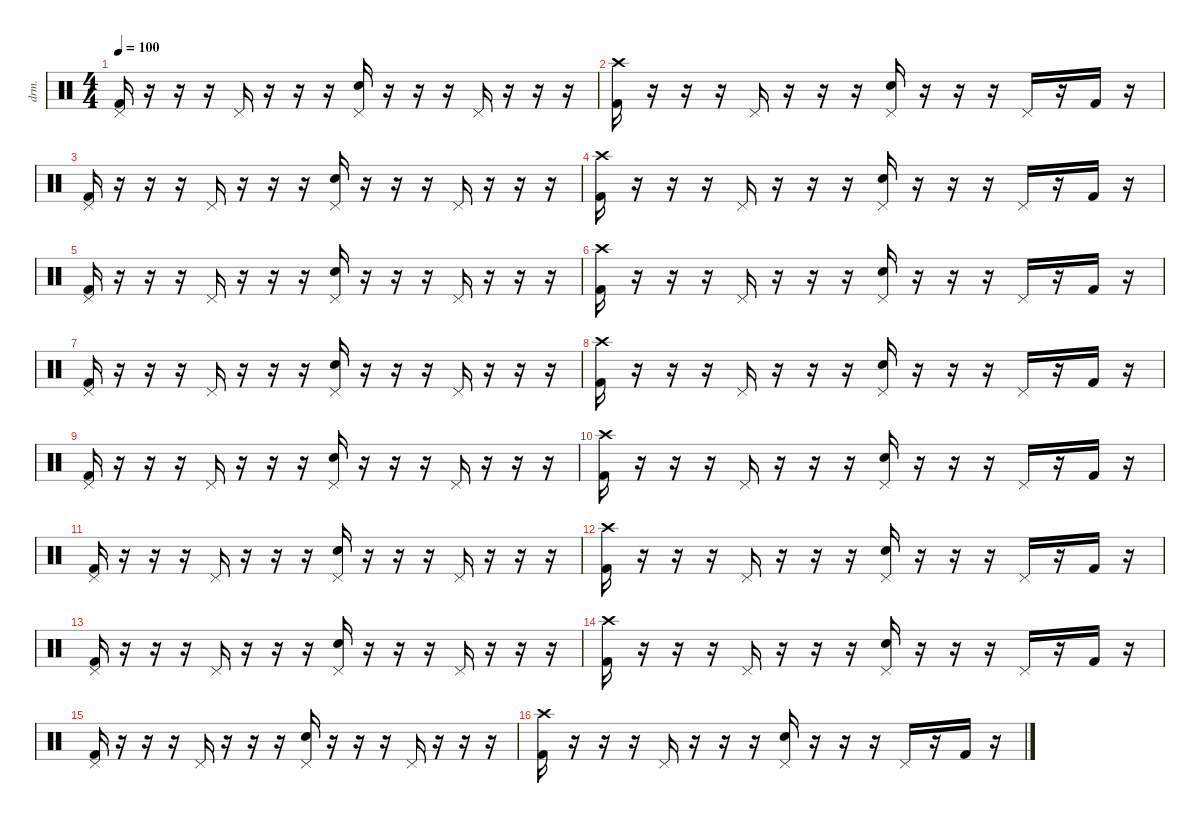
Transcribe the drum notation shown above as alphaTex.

\defaultSystemsLayout 4
\hideDynamics
\bracketExtendMode nobrackets
\otherSystemsTrackNameOrientation horizontal
\track ("Drums" "drm.") {instrument percussion}
\staff {score}
\articulation defaults
\ts (4 4)
\tempo 100
\clef neutral
\ks c
("Kick (hit) 2" "Pedal Hi-Hat (hit)").16{dy ff beam Up} r.16{beam Up} r.16{beam Up} r.16{beam Up} "Pedal Hi-Hat (hit)".16{beam Up} r.16{beam Up} r.16{beam Up} r.16{beam Up} ("Snare (hit) 2" "Pedal Hi-Hat (hit)").16{beam Up} r.16{beam Up} r.16{beam Up} r.16{beam Up} "Pedal Hi-Hat (hit)".16{beam Up} r.16{beam Up} r.16{beam Up} r.16{beam Up} |
("Kick (hit) 2" "Crash high (hit)").16{beam Down} r.16{beam Down} r.16{beam Down} r.16{beam Down} "Pedal Hi-Hat (hit)".16{beam Up} r.16{beam Up} r.16{beam Up} r.16{beam Up} ("Snare (hit) 2" "Pedal Hi-Hat (hit)").16{beam Up} r.16{beam Up} r.16{beam Up} r.16{beam Up} "Pedal Hi-Hat (hit)".16{beam Up} r.16{beam Up} "Kick (hit) 2".16{dy f beam Up} r.16{beam Up} |
("Kick (hit) 2" "Pedal Hi-Hat (hit)").16{dy ff beam Up} r.16{beam Up} r.16{beam Up} r.16{beam Up} "Pedal Hi-Hat (hit)".16{beam Up} r.16{beam Up} r.16{beam Up} r.16{beam Up} ("Snare (hit) 2" "Pedal Hi-Hat (hit)").16{beam Up} r.16{beam Up} r.16{beam Up} r.16{beam Up} "Pedal Hi-Hat (hit)".16{beam Up} r.16{beam Up} r.16{beam Up} r.16{beam Up} |
("Kick (hit) 2" "Crash high (hit)").16{beam Down} r.16{beam Down} r.16{beam Down} r.16{beam Down} "Pedal Hi-Hat (hit)".16{beam Up} r.16{beam Up} r.16{beam Up} r.16{beam Up} ("Snare (hit) 2" "Pedal Hi-Hat (hit)").16{beam Up} r.16{beam Up} r.16{beam Up} r.16{beam Up} "Pedal Hi-Hat (hit)".16{beam Up} r.16{beam Up} "Kick (hit) 2".16{dy f beam Up} r.16{beam Up} |
("Kick (hit) 2" "Pedal Hi-Hat (hit)").16{dy ff beam Up} r.16{beam Up} r.16{beam Up} r.16{beam Up} "Pedal Hi-Hat (hit)".16{beam Up} r.16{beam Up} r.16{beam Up} r.16{beam Up} ("Snare (hit) 2" "Pedal Hi-Hat (hit)").16{beam Up} r.16{beam Up} r.16{beam Up} r.16{beam Up} "Pedal Hi-Hat (hit)".16{beam Up} r.16{beam Up} r.16{beam Up} r.16{beam Up} |
("Kick (hit) 2" "Crash high (hit)").16{beam Down} r.16{beam Down} r.16{beam Down} r.16{beam Down} "Pedal Hi-Hat (hit)".16{beam Up} r.16{beam Up} r.16{beam Up} r.16{beam Up} ("Snare (hit) 2" "Pedal Hi-Hat (hit)").16{beam Up} r.16{beam Up} r.16{beam Up} r.16{beam Up} "Pedal Hi-Hat (hit)".16{beam Up} r.16{beam Up} "Kick (hit) 2".16{dy f beam Up} r.16{beam Up} |
("Kick (hit) 2" "Pedal Hi-Hat (hit)").16{dy ff beam Up} r.16{beam Up} r.16{beam Up} r.16{beam Up} "Pedal Hi-Hat (hit)".16{beam Up} r.16{beam Up} r.16{beam Up} r.16{beam Up} ("Snare (hit) 2" "Pedal Hi-Hat (hit)").16{beam Up} r.16{beam Up} r.16{beam Up} r.16{beam Up} "Pedal Hi-Hat (hit)".16{beam Up} r.16{beam Up} r.16{beam Up} r.16{beam Up} |
("Kick (hit) 2" "Crash high (hit)").16{beam Down} r.16{beam Down} r.16{beam Down} r.16{beam Down} "Pedal Hi-Hat (hit)".16{beam Up} r.16{beam Up} r.16{beam Up} r.16{beam Up} ("Snare (hit) 2" "Pedal Hi-Hat (hit)").16{beam Up} r.16{beam Up} r.16{beam Up} r.16{beam Up} "Pedal Hi-Hat (hit)".16{beam Up} r.16{beam Up} "Kick (hit) 2".16{dy f beam Up} r.16{beam Up} |
("Kick (hit) 2" "Pedal Hi-Hat (hit)").16{dy ff beam Up} r.16{beam Up} r.16{beam Up} r.16{beam Up} "Pedal Hi-Hat (hit)".16{beam Up} r.16{beam Up} r.16{beam Up} r.16{beam Up} ("Snare (hit) 2" "Pedal Hi-Hat (hit)").16{beam Up} r.16{beam Up} r.16{beam Up} r.16{beam Up} "Pedal Hi-Hat (hit)".16{beam Up} r.16{beam Up} r.16{beam Up} r.16{beam Up} |
("Kick (hit) 2" "Crash high (hit)").16{beam Down} r.16{beam Down} r.16{beam Down} r.16{beam Down} "Pedal Hi-Hat (hit)".16{beam Up} r.16{beam Up} r.16{beam Up} r.16{beam Up} ("Snare (hit) 2" "Pedal Hi-Hat (hit)").16{beam Up} r.16{beam Up} r.16{beam Up} r.16{beam Up} "Pedal Hi-Hat (hit)".16{beam Up} r.16{beam Up} "Kick (hit) 2".16{dy f beam Up} r.16{beam Up} |
("Kick (hit) 2" "Pedal Hi-Hat (hit)").16{dy ff beam Up} r.16{beam Up} r.16{beam Up} r.16{beam Up} "Pedal Hi-Hat (hit)".16{beam Up} r.16{beam Up} r.16{beam Up} r.16{beam Up} ("Snare (hit) 2" "Pedal Hi-Hat (hit)").16{beam Up} r.16{beam Up} r.16{beam Up} r.16{beam Up} "Pedal Hi-Hat (hit)".16{beam Up} r.16{beam Up} r.16{beam Up} r.16{beam Up} |
("Kick (hit) 2" "Crash high (hit)").16{beam Down} r.16{beam Down} r.16{beam Down} r.16{beam Down} "Pedal Hi-Hat (hit)".16{beam Up} r.16{beam Up} r.16{beam Up} r.16{beam Up} ("Snare (hit) 2" "Pedal Hi-Hat (hit)").16{beam Up} r.16{beam Up} r.16{beam Up} r.16{beam Up} "Pedal Hi-Hat (hit)".16{beam Up} r.16{beam Up} "Kick (hit) 2".16{dy f beam Up} r.16{beam Up} |
("Kick (hit) 2" "Pedal Hi-Hat (hit)").16{dy ff beam Up} r.16{beam Up} r.16{beam Up} r.16{beam Up} "Pedal Hi-Hat (hit)".16{beam Up} r.16{beam Up} r.16{beam Up} r.16{beam Up} ("Snare (hit) 2" "Pedal Hi-Hat (hit)").16{beam Up} r.16{beam Up} r.16{beam Up} r.16{beam Up} "Pedal Hi-Hat (hit)".16{beam Up} r.16{beam Up} r.16{beam Up} r.16{beam Up} |
("Kick (hit) 2" "Crash high (hit)").16{beam Down} r.16{beam Down} r.16{beam Down} r.16{beam Down} "Pedal Hi-Hat (hit)".16{beam Up} r.16{beam Up} r.16{beam Up} r.16{beam Up} ("Snare (hit) 2" "Pedal Hi-Hat (hit)").16{beam Up} r.16{beam Up} r.16{beam Up} r.16{beam Up} "Pedal Hi-Hat (hit)".16{beam Up} r.16{beam Up} "Kick (hit) 2".16{dy f beam Up} r.16{beam Up} |
("Kick (hit) 2" "Pedal Hi-Hat (hit)").16{dy ff beam Up} r.16{beam Up} r.16{beam Up} r.16{beam Up} "Pedal Hi-Hat (hit)".16{beam Up} r.16{beam Up} r.16{beam Up} r.16{beam Up} ("Snare (hit) 2" "Pedal Hi-Hat (hit)").16{beam Up} r.16{beam Up} r.16{beam Up} r.16{beam Up} "Pedal Hi-Hat (hit)".16{beam Up} r.16{beam Up} r.16{beam Up} r.16{beam Up} |
("Kick (hit) 2" "Crash high (hit)").16{beam Down} r.16{beam Down} r.16{beam Down} r.16{beam Down} "Pedal Hi-Hat (hit)".16{beam Up} r.16{beam Up} r.16{beam Up} r.16{beam Up} ("Snare (hit) 2" "Pedal Hi-Hat (hit)").16{beam Up} r.16{beam Up} r.16{beam Up} r.16{beam Up} "Pedal Hi-Hat (hit)".16{beam Up} r.16{beam Up} "Kick (hit) 2".16{dy f beam Up} r.16{beam Up}
